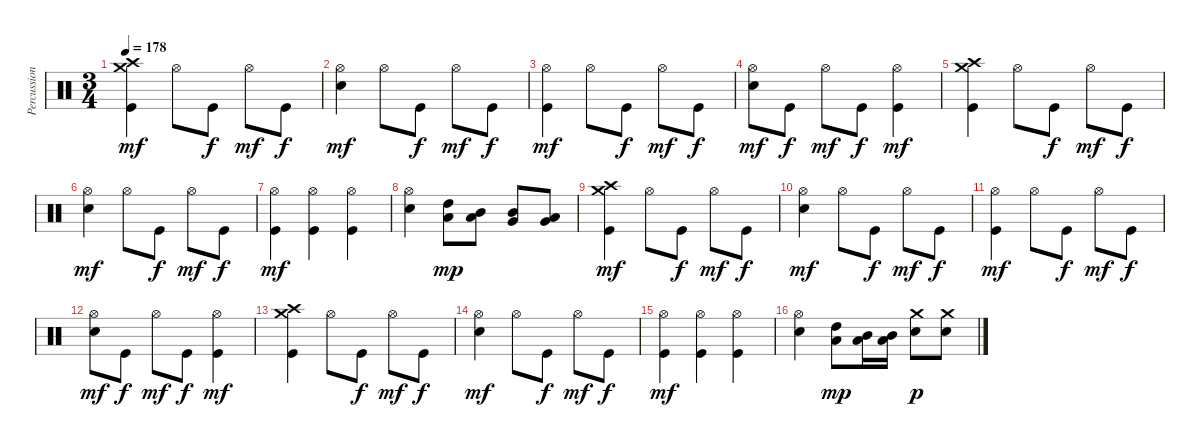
\track ("Percussions" "Percussion") {instrument percussion}
\staff {score}
\articulation defaults
\ts (3 4)
\tempo 178
\clef neutral
\ks c
("Kick (hit)" "Crash high (hit)" "Crash medium (hit)").4{dy mf} "Hi-Hat (open)".8 "Kick (hit)".8{dy f} "Hi-Hat (open)".8{dy mf} "Kick (hit)".8{dy f} |
("Electric Snare (hit)" "Hi-Hat (open)").4{dy mf} "Hi-Hat (open)".8 "Kick (hit)".8{dy f} "Hi-Hat (open)".8{dy mf} "Kick (hit)".8{dy f} |
("Kick (hit)" "Hi-Hat (open)").4{dy mf} "Hi-Hat (open)".8 "Kick (hit)".8{dy f} "Hi-Hat (open)".8{dy mf} "Kick (hit)".8{dy f} |
("Electric Snare (hit)" "Hi-Hat (open)").8{dy mf} "Kick (hit)".8{dy f} "Hi-Hat (open)".8{dy mf} "Kick (hit)".8{dy f} ("Kick (hit)" "Hi-Hat (open)").4{dy mf} |
("Kick (hit)" "Crash high (hit)" "Crash medium (hit)").4 "Hi-Hat (open)".8 "Kick (hit)".8{dy f} "Hi-Hat (open)".8{dy mf} "Kick (hit)".8{dy f} |
("Electric Snare (hit)" "Hi-Hat (open)").4{dy mf} "Hi-Hat (open)".8 "Kick (hit)".8{dy f} "Hi-Hat (open)".8{dy mf} "Kick (hit)".8{dy f} |
("Kick (hit)" "Hi-Hat (open)").4{dy mf} ("Kick (hit)" "Hi-Hat (open)").4 ("Kick (hit)" "Hi-Hat (open)").4 |
("Electric Snare (hit)" "Hi-Hat (open)").4 ("Low Tom (hit)" "High Tom (hit)").8{dy mp} ("Low Tom (hit)" "Mid Tom (hit)").8 ("Very Low Tom (hit)" "Mid Tom (hit)").8 ("Very Low Tom (hit)" "Low Tom (hit)").8 |
("Kick (hit)" "Crash high (hit)" "Crash medium (hit)").4{dy mf} "Hi-Hat (open)".8 "Kick (hit)".8{dy f} "Hi-Hat (open)".8{dy mf} "Kick (hit)".8{dy f} |
("Electric Snare (hit)" "Hi-Hat (open)").4{dy mf} "Hi-Hat (open)".8 "Kick (hit)".8{dy f} "Hi-Hat (open)".8{dy mf} "Kick (hit)".8{dy f} |
("Kick (hit)" "Hi-Hat (open)").4{dy mf} "Hi-Hat (open)".8 "Kick (hit)".8{dy f} "Hi-Hat (open)".8{dy mf} "Kick (hit)".8{dy f} |
("Electric Snare (hit)" "Hi-Hat (open)").8{dy mf} "Kick (hit)".8{dy f} "Hi-Hat (open)".8{dy mf} "Kick (hit)".8{dy f} ("Kick (hit)" "Hi-Hat (open)").4{dy mf} |
("Kick (hit)" "Crash high (hit)" "Crash medium (hit)").4 "Hi-Hat (open)".8 "Kick (hit)".8{dy f} "Hi-Hat (open)".8{dy mf} "Kick (hit)".8{dy f} |
("Electric Snare (hit)" "Hi-Hat (open)").4{dy mf} "Hi-Hat (open)".8 "Kick (hit)".8{dy f} "Hi-Hat (open)".8{dy mf} "Kick (hit)".8{dy f} |
("Kick (hit)" "Hi-Hat (open)").4{dy mf} ("Kick (hit)" "Hi-Hat (open)").4 ("Kick (hit)" "Hi-Hat (open)").4 |
("Electric Snare (hit)" "Hi-Hat (open)").4 ("Low Tom (hit)" "High Tom (hit)").8{dy mp} ("Low Tom (hit)" "Mid Tom (hit)").16 ("Low Tom (hit)" "Mid Tom (hit)").16 ("Electric Snare (hit)" "Crash medium (hit)").8{dy p} ("Electric Snare (hit)" "Crash medium (hit)").8
